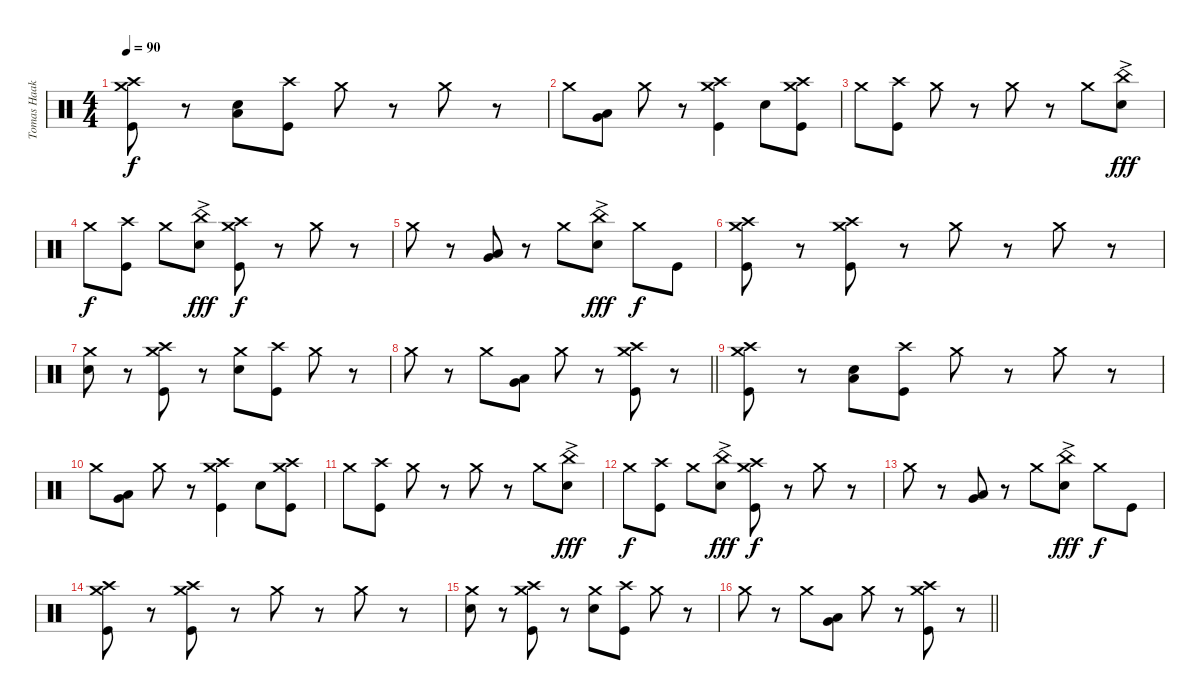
\track ("Tomas Haake" "Tomas Haak") {instrument percussion}
\staff {score}
\articulation defaults
\ts (4 4)
\section ("" "")
\tempo 90
\clef neutral
\ks c
("Crash high (hit)" "Crash medium (hit)" "Kick (hit)").8{dy f} r.8 ("Electric Snare (hit)" "Low Floor Tom (hit)").8 ("Crash high (hit)" "Kick (hit)").8 "Crash medium (hit)".8 r.8 "Crash medium (hit)".8 r.8 |
"Crash medium (hit)".8 ("Very Low Tom (hit)" "Low Floor Tom (hit)").8 "Crash medium (hit)".8 r.8 ("Crash high (hit)" "Crash medium (hit)" "Kick (hit)").4 "Electric Snare (hit)".8 ("Crash high (hit)" "Crash medium (hit)" "Kick (hit)").8 |
"Crash medium (hit)".8 ("Crash high (hit)" "Kick (hit)").8 "Crash medium (hit)".8 r.8 "Crash medium (hit)".8 r.8 "Crash medium (hit)".8 ("China (hit)"{ac} "Electric Snare (hit)").8{dy fff} |
"Crash medium (hit)".8{dy f} ("Crash high (hit)" "Kick (hit)").8 "Crash medium (hit)".8 ("China (hit)"{ac} "Electric Snare (hit)").8{dy fff} ("Crash high (hit)" "Crash medium (hit)" "Kick (hit)").8{dy f} r.8 "Crash medium (hit)".8 r.8 |
"Crash medium (hit)".8 r.8 ("Very Low Tom (hit)" "Low Floor Tom (hit)").8 r.8 "Crash medium (hit)".8 ("China (hit)"{ac} "Electric Snare (hit)").8{dy fff} "Crash medium (hit)".8{dy f} "Kick (hit)".8 |
("Crash high (hit)" "Crash medium (hit)" "Kick (hit)").8 r.8 ("Crash high (hit)" "Crash medium (hit)" "Kick (hit)").8 r.8 "Crash medium (hit)".8 r.8 "Crash medium (hit)".8 r.8 |
("Crash medium (hit)" "Snare (hit) 2").8 r.8 ("Crash high (hit)" "Crash medium (hit)" "Kick (hit)").8 r.8 ("Crash medium (hit)" "Electric Snare (hit)").8 ("Crash high (hit)" "Kick (hit)").8 "Crash medium (hit)".8 r.8 |
\barLineRight lightlight "Crash medium (hit)".8
r.8 "Crash medium (hit)".8 ("Very Low Tom (hit)" "Low Floor Tom (hit)").8 "Crash medium (hit)".8 r.8 ("Crash high (hit)" "Crash medium (hit)" "Kick (hit)").8 r.8 |
\section ("" "")
("Crash high (hit)" "Crash medium (hit)" "Kick (hit)").8 r.8 ("Electric Snare (hit)" "Low Floor Tom (hit)").8 ("Crash high (hit)" "Kick (hit)").8 "Crash medium (hit)".8 r.8 "Crash medium (hit)".8 r.8 |
"Crash medium (hit)".8 ("Very Low Tom (hit)" "Low Floor Tom (hit)").8 "Crash medium (hit)".8 r.8 ("Crash high (hit)" "Crash medium (hit)" "Kick (hit)").4 "Electric Snare (hit)".8 ("Crash high (hit)" "Crash medium (hit)" "Kick (hit)").8 |
"Crash medium (hit)".8 ("Crash high (hit)" "Kick (hit)").8 "Crash medium (hit)".8 r.8 "Crash medium (hit)".8 r.8 "Crash medium (hit)".8 ("China (hit)"{ac} "Electric Snare (hit)").8{dy fff} |
"Crash medium (hit)".8{dy f} ("Crash high (hit)" "Kick (hit)").8 "Crash medium (hit)".8 ("China (hit)"{ac} "Electric Snare (hit)").8{dy fff} ("Crash high (hit)" "Crash medium (hit)" "Kick (hit)").8{dy f} r.8 "Crash medium (hit)".8 r.8 |
"Crash medium (hit)".8 r.8 ("Very Low Tom (hit)" "Low Floor Tom (hit)").8 r.8 "Crash medium (hit)".8 ("China (hit)"{ac} "Electric Snare (hit)").8{dy fff} "Crash medium (hit)".8{dy f} "Kick (hit)".8 |
("Crash high (hit)" "Crash medium (hit)" "Kick (hit)").8 r.8 ("Crash high (hit)" "Crash medium (hit)" "Kick (hit)").8 r.8 "Crash medium (hit)".8 r.8 "Crash medium (hit)".8 r.8 |
("Crash medium (hit)" "Snare (hit) 2").8 r.8 ("Crash high (hit)" "Crash medium (hit)" "Kick (hit)").8 r.8 ("Crash medium (hit)" "Electric Snare (hit)").8 ("Crash high (hit)" "Kick (hit)").8 "Crash medium (hit)".8 r.8 |
\barLineRight lightlight "Crash medium (hit)".8
r.8 "Crash medium (hit)".8 ("Very Low Tom (hit)" "Low Floor Tom (hit)").8 "Crash medium (hit)".8 r.8 ("Crash high (hit)" "Crash medium (hit)" "Kick (hit)").8 r.8
